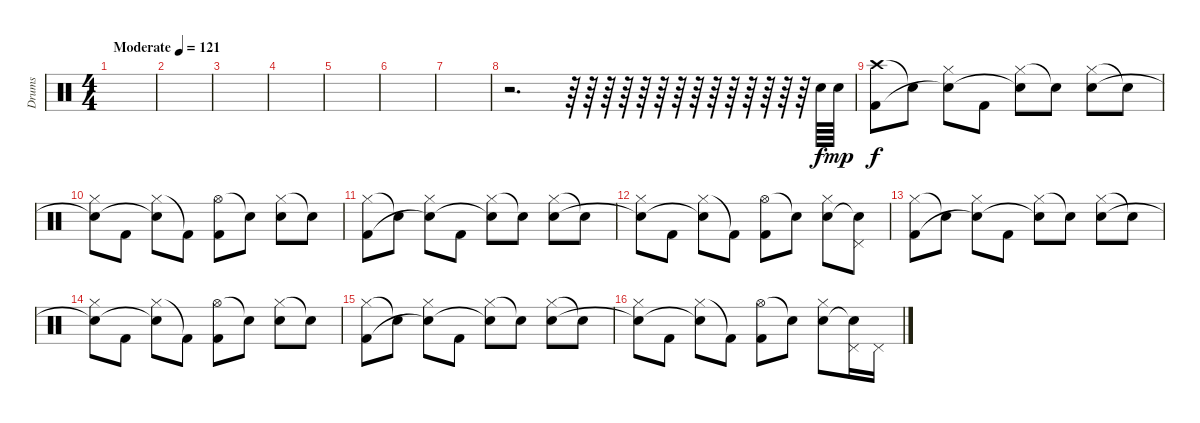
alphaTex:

\track ("Drums" "Drums") {instrument percussion}
\staff {score}
\articulation defaults
\ts (4 4)
\tempo (121 "Moderate")
\clef neutral
\ks c
|
|
|
|
|
|
|
r.2{d} r.64 r.64 r.64 r.64 r.64 r.64 r.64 r.64 r.64 r.64 r.64 r.64 r.64 r.64 "Electric Snare (hit)".64 "Electric Snare (hit)".64{dy mp} |
("Crash high (hit)" "Kick (hit) 2").8{dy f} "Snare (hit)"{t}.8 ("Hi-Hat (closed)" "Snare (hit)"{t}).8 "Kick (hit) 2".8 ("Hi-Hat (closed)" "Snare (hit)"{t}).8 "Snare (hit)"{t}.8 ("Hi-Hat (closed)" "Electric Snare (hit)").8 "Snare (hit)"{t}.8 |
("Hi-Hat (closed)" "Snare (hit)"{t}).8 "Kick (hit) 2".8 ("Hi-Hat (closed)" "Snare (hit)"{t}).8 "Kick (hit) 2"{t}.8 ("Hi-Hat (open)" "Kick (hit) 2").8 "Snare (hit)"{t}.8 ("Hi-Hat (closed)" "Electric Snare (hit)").8 "Snare (hit)"{t}.8 |
("Hi-Hat (closed)" "Kick (hit) 2").8 "Snare (hit)"{t}.8 ("Hi-Hat (closed)" "Snare (hit)"{t}).8 "Kick (hit) 2".8 ("Hi-Hat (closed)" "Snare (hit)"{t}).8 "Snare (hit)"{t}.8 ("Hi-Hat (closed)" "Electric Snare (hit)").8 "Snare (hit)"{t}.8 |
("Hi-Hat (closed)" "Snare (hit)"{t}).8 "Kick (hit) 2".8 ("Hi-Hat (closed)" "Snare (hit)"{t}).8 "Kick (hit) 2"{t}.8 ("Hi-Hat (open)" "Kick (hit) 2").8 "Snare (hit)"{t}.8 ("Hi-Hat (closed)" "Electric Snare (hit)").8 ("Pedal Hi-Hat (hit)" "Snare (hit)"{t}).8 |
("Hi-Hat (closed)" "Kick (hit) 2").8 "Snare (hit)"{t}.8 ("Hi-Hat (closed)" "Snare (hit)"{t}).8 "Kick (hit) 2".8 ("Hi-Hat (closed)" "Snare (hit)"{t}).8 "Snare (hit)"{t}.8 ("Hi-Hat (closed)" "Electric Snare (hit)").8 "Snare (hit)"{t}.8 |
("Hi-Hat (closed)" "Snare (hit)"{t}).8 "Kick (hit) 2".8 ("Hi-Hat (closed)" "Snare (hit)"{t}).8 "Kick (hit) 2"{t}.8 ("Hi-Hat (open)" "Kick (hit) 2").8 "Snare (hit)"{t}.8 ("Hi-Hat (closed)" "Electric Snare (hit)").8 "Snare (hit)"{t}.8 |
("Hi-Hat (closed)" "Kick (hit) 2").8 "Snare (hit)"{t}.8 ("Hi-Hat (closed)" "Snare (hit)"{t}).8 "Kick (hit) 2".8 ("Hi-Hat (closed)" "Snare (hit)"{t}).8 "Snare (hit)"{t}.8 ("Hi-Hat (closed)" "Electric Snare (hit)").8 "Snare (hit)"{t}.8 |
("Hi-Hat (closed)" "Snare (hit)"{t}).8 "Kick (hit) 2".8 ("Hi-Hat (closed)" "Snare (hit)"{t}).8 "Kick (hit) 2"{t}.8 ("Hi-Hat (open)" "Kick (hit) 2").8 "Snare (hit)"{t}.8 ("Hi-Hat (closed)" "Electric Snare (hit)").8 ("Pedal Hi-Hat (hit)" "Snare (hit)"{t}).16 "Pedal Hi-Hat (hit)".16
